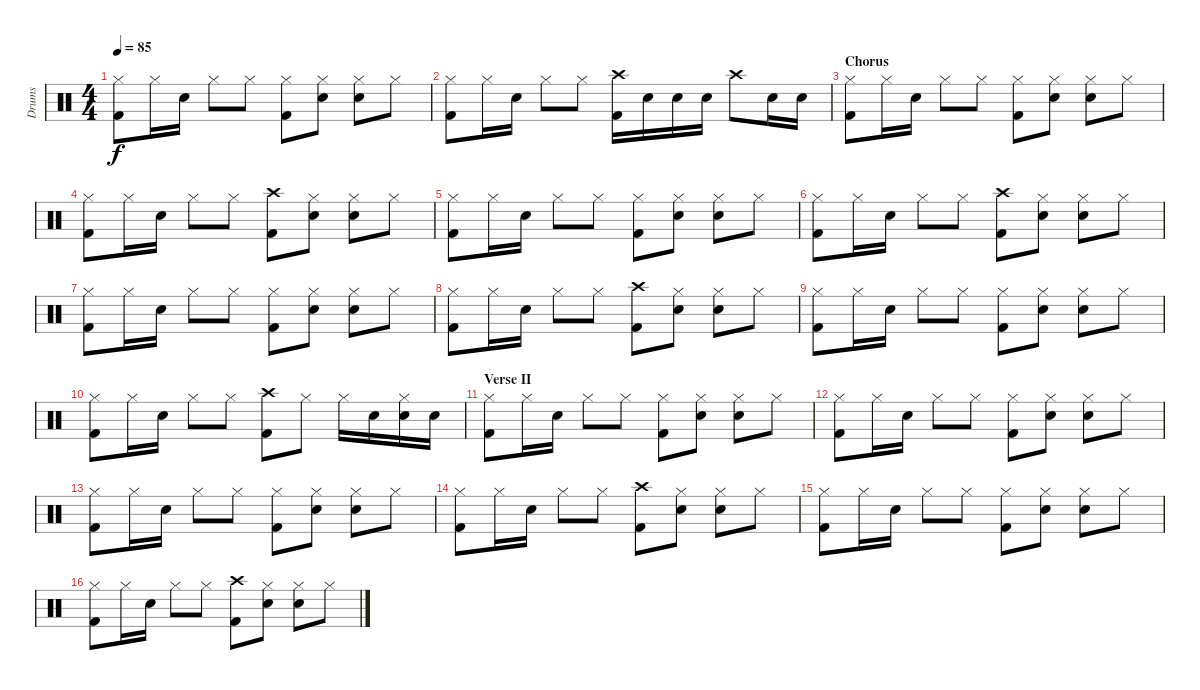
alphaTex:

\track ("Drums" "Drums") {instrument percussion}
\staff {score}
\articulation defaults
\ts (4 4)
\tempo 85
\clef neutral
\ks c
("Hi-Hat (closed)" "Kick (hit) 2").8{dy f} "Hi-Hat (closed)".16 "Snare (hit) 2".16 "Hi-Hat (closed)".8 "Hi-Hat (closed)".8 ("Hi-Hat (closed)" "Kick (hit) 2").8 ("Hi-Hat (closed)" "Snare (hit) 2").8 ("Hi-Hat (closed)" "Snare (hit) 2").8 "Hi-Hat (closed)".8 |
("Hi-Hat (closed)" "Kick (hit) 2").8 "Hi-Hat (closed)".16 "Snare (hit) 2".16 "Hi-Hat (closed)".8 "Hi-Hat (closed)".8 ("Crash high (hit)" "Kick (hit) 2").16 "Snare (hit) 2".16 "Snare (hit) 2".16 "Snare (hit) 2".16 "Crash high (hit)".8 "Snare (hit) 2".16 "Snare (hit) 2".16 |
\section ("" "Chorus")
("Hi-Hat (closed)" "Kick (hit) 2").8 "Hi-Hat (closed)".16 "Snare (hit) 2".16 "Hi-Hat (closed)".8 "Hi-Hat (closed)".8 ("Hi-Hat (closed)" "Kick (hit) 2").8 ("Hi-Hat (closed)" "Snare (hit) 2").8 ("Hi-Hat (closed)" "Snare (hit) 2").8 "Hi-Hat (closed)".8 |
("Hi-Hat (closed)" "Kick (hit) 2").8 "Hi-Hat (closed)".16 "Snare (hit) 2".16 "Hi-Hat (closed)".8 "Hi-Hat (closed)".8 ("Crash high (hit)" "Kick (hit) 2").8 ("Hi-Hat (closed)" "Snare (hit) 2").8 ("Hi-Hat (closed)" "Snare (hit) 2").8 "Hi-Hat (closed)".8 |
("Hi-Hat (closed)" "Kick (hit) 2").8 "Hi-Hat (closed)".16 "Snare (hit) 2".16 "Hi-Hat (closed)".8 "Hi-Hat (closed)".8 ("Hi-Hat (closed)" "Kick (hit) 2").8 ("Hi-Hat (closed)" "Snare (hit) 2").8 ("Hi-Hat (closed)" "Snare (hit) 2").8 "Hi-Hat (closed)".8 |
("Hi-Hat (closed)" "Kick (hit) 2").8 "Hi-Hat (closed)".16 "Snare (hit) 2".16 "Hi-Hat (closed)".8 "Hi-Hat (closed)".8 ("Crash high (hit)" "Kick (hit) 2").8 ("Hi-Hat (closed)" "Snare (hit) 2").8 ("Hi-Hat (closed)" "Snare (hit) 2").8 "Hi-Hat (closed)".8 |
("Hi-Hat (closed)" "Kick (hit) 2").8 "Hi-Hat (closed)".16 "Snare (hit) 2".16 "Hi-Hat (closed)".8 "Hi-Hat (closed)".8 ("Hi-Hat (closed)" "Kick (hit) 2").8 ("Hi-Hat (closed)" "Snare (hit) 2").8 ("Hi-Hat (closed)" "Snare (hit) 2").8 "Hi-Hat (closed)".8 |
("Hi-Hat (closed)" "Kick (hit) 2").8 "Hi-Hat (closed)".16 "Snare (hit) 2".16 "Hi-Hat (closed)".8 "Hi-Hat (closed)".8 ("Crash high (hit)" "Kick (hit) 2").8 ("Hi-Hat (closed)" "Snare (hit) 2").8 ("Hi-Hat (closed)" "Snare (hit) 2").8 "Hi-Hat (closed)".8 |
("Hi-Hat (closed)" "Kick (hit) 2").8 "Hi-Hat (closed)".16 "Snare (hit) 2".16 "Hi-Hat (closed)".8 "Hi-Hat (closed)".8 ("Hi-Hat (closed)" "Kick (hit) 2").8 ("Hi-Hat (closed)" "Snare (hit) 2").8 ("Hi-Hat (closed)" "Snare (hit) 2").8 "Hi-Hat (closed)".8 |
("Hi-Hat (closed)" "Kick (hit) 2").8 "Hi-Hat (closed)".16 "Snare (hit) 2".16 "Hi-Hat (closed)".8 "Hi-Hat (closed)".8 ("Crash high (hit)" "Kick (hit) 2").8 "Hi-Hat (closed)".8 "Hi-Hat (closed)".16 "Snare (hit) 2".16 ("Hi-Hat (closed)" "Snare (hit) 2").16 "Snare (hit) 2".16 |
\section ("" "Verse II")
("Hi-Hat (closed)" "Kick (hit) 2").8 "Hi-Hat (closed)".16 "Snare (hit) 2".16 "Hi-Hat (closed)".8 "Hi-Hat (closed)".8 ("Hi-Hat (closed)" "Kick (hit) 2").8 ("Hi-Hat (closed)" "Snare (hit) 2").8 ("Hi-Hat (closed)" "Snare (hit) 2").8 "Hi-Hat (closed)".8 |
("Hi-Hat (closed)" "Kick (hit) 2").8 "Hi-Hat (closed)".16 "Snare (hit) 2".16 "Hi-Hat (closed)".8 "Hi-Hat (closed)".8 ("Hi-Hat (closed)" "Kick (hit) 2").8 ("Hi-Hat (closed)" "Snare (hit) 2").8 ("Hi-Hat (closed)" "Snare (hit) 2").8 "Hi-Hat (closed)".8 |
("Hi-Hat (closed)" "Kick (hit) 2").8 "Hi-Hat (closed)".16 "Snare (hit) 2".16 "Hi-Hat (closed)".8 "Hi-Hat (closed)".8 ("Hi-Hat (closed)" "Kick (hit) 2").8 ("Hi-Hat (closed)" "Snare (hit) 2").8 ("Hi-Hat (closed)" "Snare (hit) 2").8 "Hi-Hat (closed)".8 |
("Hi-Hat (closed)" "Kick (hit) 2").8 "Hi-Hat (closed)".16 "Snare (hit) 2".16 "Hi-Hat (closed)".8 "Hi-Hat (closed)".8 ("Crash high (hit)" "Kick (hit) 2").8 ("Hi-Hat (closed)" "Snare (hit) 2").8 ("Hi-Hat (closed)" "Snare (hit) 2").8 "Hi-Hat (closed)".8 |
("Hi-Hat (closed)" "Kick (hit) 2").8 "Hi-Hat (closed)".16 "Snare (hit) 2".16 "Hi-Hat (closed)".8 "Hi-Hat (closed)".8 ("Hi-Hat (closed)" "Kick (hit) 2").8 ("Hi-Hat (closed)" "Snare (hit) 2").8 ("Hi-Hat (closed)" "Snare (hit) 2").8 "Hi-Hat (closed)".8 |
("Hi-Hat (closed)" "Kick (hit) 2").8 "Hi-Hat (closed)".16 "Snare (hit) 2".16 "Hi-Hat (closed)".8 "Hi-Hat (closed)".8 ("Crash high (hit)" "Kick (hit) 2").8 ("Hi-Hat (closed)" "Snare (hit) 2").8 ("Hi-Hat (closed)" "Snare (hit) 2").8 "Hi-Hat (closed)".8
